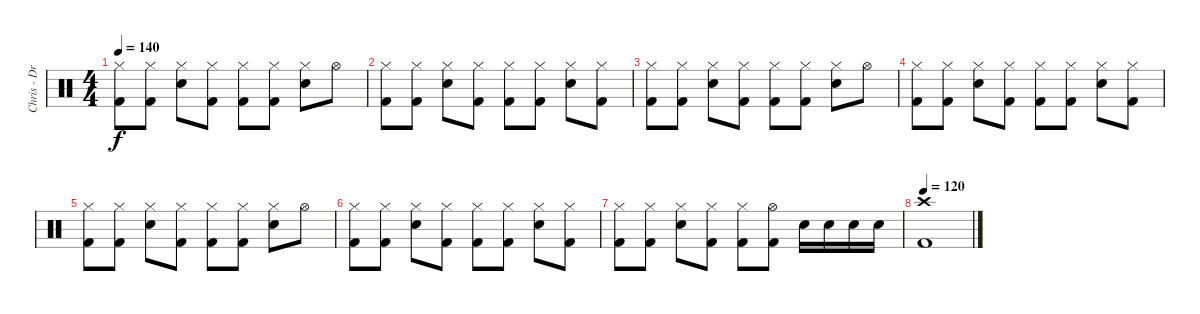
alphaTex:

\track ("Chris - Drums" "Chris - Dr") {instrument percussion}
\staff {score}
\articulation defaults
\ts (4 4)
\tempo 140
\clef neutral
\ks c
("Hi-Hat (closed)" "Kick (hit) 2").8{dy f} ("Hi-Hat (closed)" "Kick (hit) 2").8 ("Hi-Hat (closed)" "Electric Snare (hit)").8 ("Hi-Hat (closed)" "Kick (hit) 2").8 ("Hi-Hat (closed)" "Kick (hit) 2").8 ("Hi-Hat (closed)" "Kick (hit) 2").8 ("Hi-Hat (closed)" "Electric Snare (hit)").8 "Hi-Hat (open)".8 |
("Hi-Hat (closed)" "Kick (hit) 2").8 ("Hi-Hat (closed)" "Kick (hit) 2").8 ("Hi-Hat (closed)" "Electric Snare (hit)").8 ("Hi-Hat (closed)" "Kick (hit) 2").8 ("Hi-Hat (closed)" "Kick (hit) 2").8 ("Hi-Hat (closed)" "Kick (hit) 2").8 ("Hi-Hat (closed)" "Electric Snare (hit)").8 ("Hi-Hat (closed)" "Kick (hit) 2").8 |
("Hi-Hat (closed)" "Kick (hit) 2").8 ("Hi-Hat (closed)" "Kick (hit) 2").8 ("Hi-Hat (closed)" "Electric Snare (hit)").8 ("Hi-Hat (closed)" "Kick (hit) 2").8 ("Hi-Hat (closed)" "Kick (hit) 2").8 ("Hi-Hat (closed)" "Kick (hit) 2").8 ("Hi-Hat (closed)" "Electric Snare (hit)").8 "Hi-Hat (open)".8 |
("Hi-Hat (closed)" "Kick (hit) 2").8 ("Hi-Hat (closed)" "Kick (hit) 2").8 ("Hi-Hat (closed)" "Electric Snare (hit)").8 ("Hi-Hat (closed)" "Kick (hit) 2").8 ("Hi-Hat (closed)" "Kick (hit) 2").8 ("Hi-Hat (closed)" "Kick (hit) 2").8 ("Hi-Hat (closed)" "Electric Snare (hit)").8 ("Hi-Hat (closed)" "Kick (hit) 2").8 |
("Hi-Hat (closed)" "Kick (hit) 2").8 ("Hi-Hat (closed)" "Kick (hit) 2").8 ("Hi-Hat (closed)" "Electric Snare (hit)").8 ("Hi-Hat (closed)" "Kick (hit) 2").8 ("Hi-Hat (closed)" "Kick (hit) 2").8 ("Hi-Hat (closed)" "Kick (hit) 2").8 ("Hi-Hat (closed)" "Electric Snare (hit)").8 "Hi-Hat (open)".8 |
("Hi-Hat (closed)" "Kick (hit) 2").8 ("Hi-Hat (closed)" "Kick (hit) 2").8 ("Hi-Hat (closed)" "Electric Snare (hit)").8 ("Hi-Hat (closed)" "Kick (hit) 2").8 ("Hi-Hat (closed)" "Kick (hit) 2").8 ("Hi-Hat (closed)" "Kick (hit) 2").8 ("Hi-Hat (closed)" "Electric Snare (hit)").8 ("Hi-Hat (closed)" "Kick (hit) 2").8 |
("Hi-Hat (closed)" "Kick (hit) 2").8 ("Hi-Hat (closed)" "Kick (hit) 2").8 ("Hi-Hat (closed)" "Electric Snare (hit)").8 ("Hi-Hat (closed)" "Kick (hit) 2").8 ("Hi-Hat (closed)" "Kick (hit) 2").8 ("Hi-Hat (open)" "Kick (hit) 2").8 "Electric Snare (hit)".16 "Electric Snare (hit)".16 "Electric Snare (hit)".16 "Electric Snare (hit)".16 |
\tempo 120
("Crash high (hit)" "Kick (hit) 2").1
